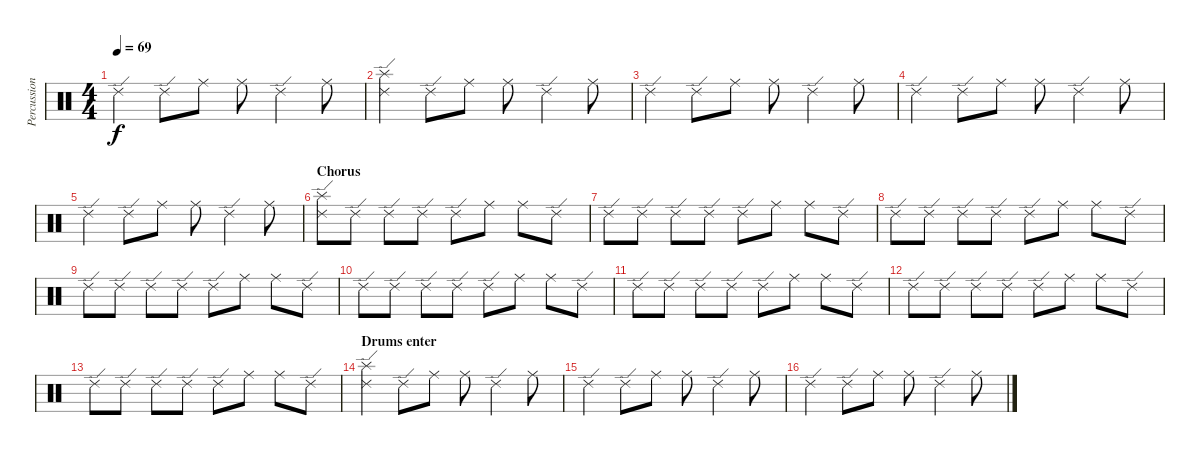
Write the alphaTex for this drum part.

\track ("Percussion" "Percussion") {instrument percussion}
\staff {score}
\articulation defaults
\ts (4 4)
\tempo 69
\clef neutral
\ks c "Ride (edge) 2".4{dy f} "Ride (edge) 2".8 "Ride (middle)".8 "Ride (middle)".8 "Ride (edge) 2".4 "Ride (middle)".8
|
("Ride (edge) 2" "Splash (hit)").4 "Ride (edge) 2".8 "Ride (middle)".8 "Ride (middle)".8 "Ride (edge) 2".4 "Ride (middle)".8 |
"Ride (edge) 2".4 "Ride (edge) 2".8 "Ride (middle)".8 "Ride (middle)".8 "Ride (edge) 2".4 "Ride (middle)".8 |
"Ride (edge) 2".4 "Ride (edge) 2".8 "Ride (middle)".8 "Ride (middle)".8 "Ride (edge) 2".4 "Ride (middle)".8 |
"Ride (edge) 2".4 "Ride (edge) 2".8 "Ride (middle)".8 "Ride (middle)".8 "Ride (edge) 2".4 "Ride (middle)".8 |
\section ("" "Chorus")
("Ride (edge) 2" "Splash (hit)").8 "Ride (edge) 2".8 "Ride (edge) 2".8 "Ride (edge) 2".8 "Ride (edge) 2".8 "Ride (middle)".8 "Ride (middle)".8 "Ride (edge) 2".8 |
"Ride (edge) 2".8 "Ride (edge) 2".8 "Ride (edge) 2".8 "Ride (edge) 2".8 "Ride (edge) 2".8 "Ride (middle)".8 "Ride (middle)".8 "Ride (edge) 2".8 |
"Ride (edge) 2".8 "Ride (edge) 2".8 "Ride (edge) 2".8 "Ride (edge) 2".8 "Ride (edge) 2".8 "Ride (middle)".8 "Ride (middle)".8 "Ride (edge) 2".8 |
"Ride (edge) 2".8 "Ride (edge) 2".8 "Ride (edge) 2".8 "Ride (edge) 2".8 "Ride (edge) 2".8 "Ride (middle)".8 "Ride (middle)".8 "Ride (edge) 2".8 |
"Ride (edge) 2".8 "Ride (edge) 2".8 "Ride (edge) 2".8 "Ride (edge) 2".8 "Ride (edge) 2".8 "Ride (middle)".8 "Ride (middle)".8 "Ride (edge) 2".8 |
"Ride (edge) 2".8 "Ride (edge) 2".8 "Ride (edge) 2".8 "Ride (edge) 2".8 "Ride (edge) 2".8 "Ride (middle)".8 "Ride (middle)".8 "Ride (edge) 2".8 |
"Ride (edge) 2".8 "Ride (edge) 2".8 "Ride (edge) 2".8 "Ride (edge) 2".8 "Ride (edge) 2".8 "Ride (middle)".8 "Ride (middle)".8 "Ride (edge) 2".8 |
"Ride (edge) 2".8 "Ride (edge) 2".8 "Ride (edge) 2".8 "Ride (edge) 2".8 "Ride (edge) 2".8 "Ride (middle)".8 "Ride (middle)".8 "Ride (edge) 2".8 |
\section ("" "Drums enter")
("Ride (edge) 2" "Splash (hit)").4{volume 13} "Ride (edge) 2".8 "Ride (middle)".8 "Ride (middle)".8 "Ride (edge) 2".4 "Ride (middle)".8 |
"Ride (edge) 2".4 "Ride (edge) 2".8 "Ride (middle)".8 "Ride (middle)".8 "Ride (edge) 2".4 "Ride (middle)".8 |
"Ride (edge) 2".4 "Ride (edge) 2".8 "Ride (middle)".8 "Ride (middle)".8 "Ride (edge) 2".4 "Ride (middle)".8
